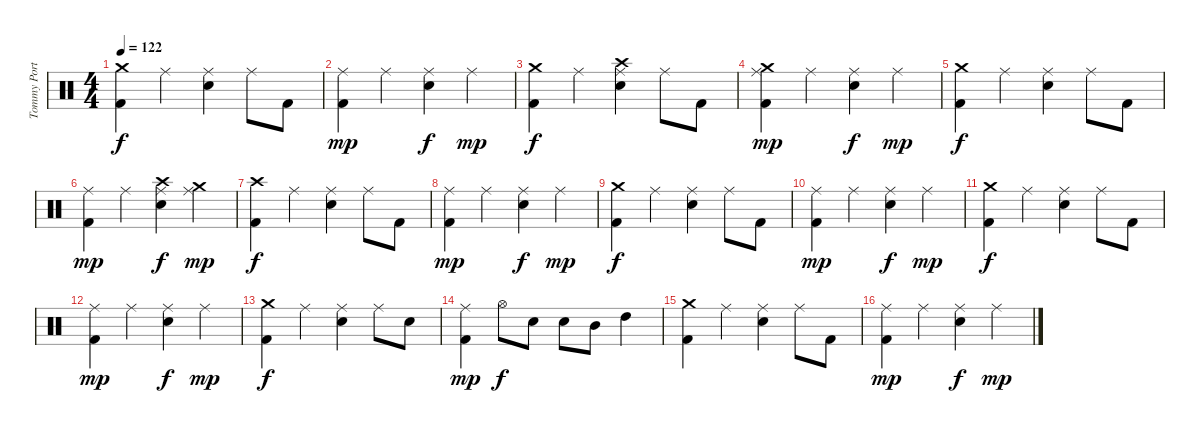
\track ("Tommy Portino" "Tommy Port") {instrument percussion}
\staff {score}
\articulation defaults
\ts (4 4)
\tempo 122
\clef neutral
\ks c
("Crash medium (hit)" "Kick (hit) 2").4{dy f} "Ride (middle)".4 ("Ride (middle)" "Snare (hit) 2").4 "Ride (middle)".8 "Kick (hit) 2".8 |
("Ride (middle)" "Kick (hit) 2").4{dy mp} "Ride (middle)".4 ("Ride (middle)" "Snare (hit) 2").4{dy f} "Ride (middle)".4{dy mp} |
("Crash medium (hit)" "Kick (hit) 2").4{dy f} "Ride (middle)".4 ("Crash high (hit)" "Ride (middle)" "Snare (hit) 2").4 "Ride (middle)".8 "Kick (hit) 2".8 |
("Crash medium (hit)" "Ride (middle)" "Kick (hit) 2").4{dy mp} "Ride (middle)".4 ("Ride (middle)" "Snare (hit) 2").4{dy f} "Ride (middle)".4{dy mp} |
("Crash medium (hit)" "Kick (hit) 2").4{dy f} "Ride (middle)".4 ("Ride (middle)" "Snare (hit) 2").4 "Ride (middle)".8 "Kick (hit) 2".8 |
("Ride (middle)" "Kick (hit) 2").4{dy mp} "Ride (middle)".4 ("Crash high (hit)" "Ride (middle)" "Snare (hit) 2").4{dy f} ("Crash medium (hit)" "Ride (middle)").4{dy mp} |
("Crash high (hit)" "Kick (hit) 2").4{dy f} "Ride (middle)".4 ("Ride (middle)" "Snare (hit) 2").4 "Ride (middle)".8 "Kick (hit) 2".8 |
("Ride (middle)" "Kick (hit) 2").4{dy mp} "Ride (middle)".4 ("Ride (middle)" "Snare (hit) 2").4{dy f} "Ride (middle)".4{dy mp} |
("Crash medium (hit)" "Kick (hit) 2").4{dy f} "Ride (middle)".4 ("Ride (middle)" "Snare (hit) 2").4 "Ride (middle)".8 "Kick (hit) 2".8 |
("Ride (middle)" "Kick (hit) 2").4{dy mp} "Ride (middle)".4 ("Ride (middle)" "Snare (hit) 2").4{dy f} "Ride (middle)".4{dy mp} |
("Crash medium (hit)" "Kick (hit) 2").4{dy f} "Ride (middle)".4 ("Ride (middle)" "Snare (hit) 2").4 "Ride (middle)".8 "Kick (hit) 2".8 |
("Ride (middle)" "Kick (hit) 2").4{dy mp} "Ride (middle)".4 ("Ride (middle)" "Snare (hit) 2").4{dy f} "Ride (middle)".4{dy mp} |
("Crash medium (hit)" "Kick (hit) 2").4{dy f} "Ride (middle)".4 ("Ride (middle)" "Snare (hit) 2").4 "Ride (middle)".8 "Snare (hit) 2".8 |
("Ride (middle)" "Kick (hit) 2").4{dy mp} "Hi-Hat (open)".8{dy f} "Snare (hit) 2".8 "Snare (hit) 2".8 "Mid Tom (hit)".8 "High Tom (hit)".4 |
("Crash medium (hit)" "Kick (hit) 2").4 "Ride (middle)".4 ("Ride (middle)" "Snare (hit) 2").4 "Ride (middle)".8 "Kick (hit) 2".8 |
("Ride (middle)" "Kick (hit) 2").4{dy mp} "Ride (middle)".4 ("Ride (middle)" "Snare (hit) 2").4{dy f} "Ride (middle)".4{dy mp}
